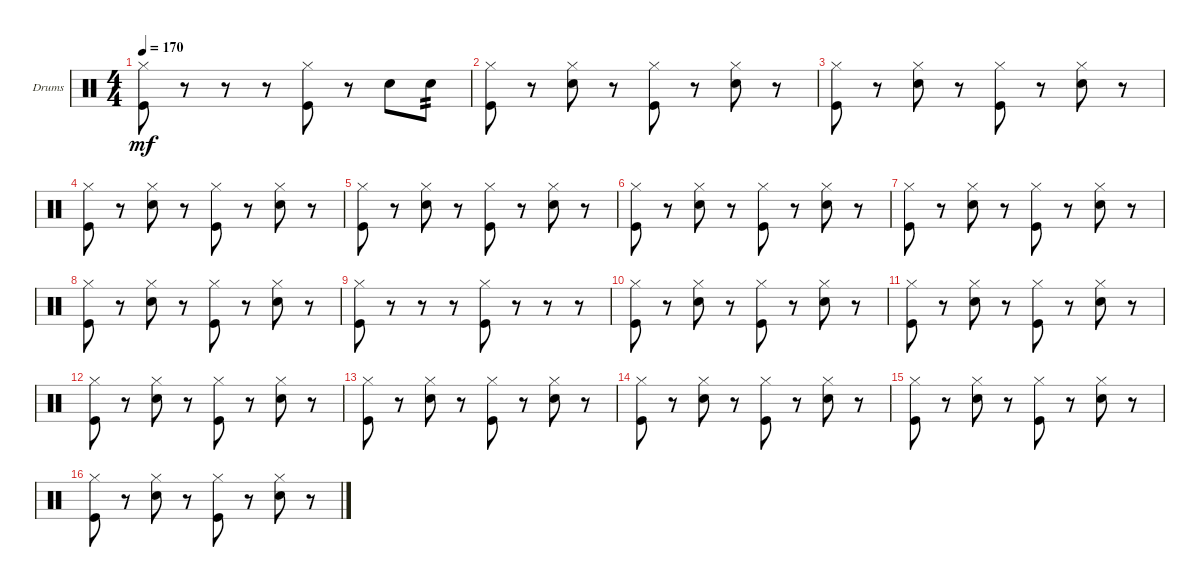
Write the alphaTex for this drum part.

\defaultSystemsLayout 4
\bracketExtendMode groupsimilarinstruments
\firstSystemTrackNameOrientation horizontal
\otherSystemsTrackNameOrientation horizontal
\track ("Drumkit" "Drums") {instrument percussion}
\staff {score}
\articulation defaults
\ts (4 4)
\tempo 170
\clef neutral
\ks c
("Kick (hit)" "Hi-Hat (closed)").8{dy mf} r.8 r.8 r.8 ("Kick (hit)" "Hi-Hat (closed)").8 r.8 "Snare (hit) 2".8 "Snare (hit) 2".8{tp 2} |
("Kick (hit)" "Hi-Hat (closed)").8 r.8 ("Snare (hit) 2" "Hi-Hat (closed)").8 r.8 ("Kick (hit)" "Hi-Hat (closed)").8 r.8 ("Snare (hit) 2" "Hi-Hat (closed)").8 r.8 |
("Kick (hit)" "Hi-Hat (closed)").8 r.8 ("Snare (hit) 2" "Hi-Hat (closed)").8 r.8 ("Kick (hit)" "Hi-Hat (closed)").8 r.8 ("Snare (hit) 2" "Hi-Hat (closed)").8 r.8 |
("Kick (hit)" "Hi-Hat (closed)").8 r.8 ("Snare (hit) 2" "Hi-Hat (closed)").8 r.8 ("Kick (hit)" "Hi-Hat (closed)").8 r.8 ("Snare (hit) 2" "Hi-Hat (closed)").8 r.8 |
("Kick (hit)" "Hi-Hat (closed)").8 r.8 ("Snare (hit) 2" "Hi-Hat (closed)").8 r.8 ("Kick (hit)" "Hi-Hat (closed)").8 r.8 ("Snare (hit) 2" "Hi-Hat (closed)").8 r.8 |
("Kick (hit)" "Hi-Hat (closed)").8 r.8 ("Snare (hit) 2" "Hi-Hat (closed)").8 r.8 ("Kick (hit)" "Hi-Hat (closed)").8 r.8 ("Snare (hit) 2" "Hi-Hat (closed)").8 r.8 |
("Kick (hit)" "Hi-Hat (closed)").8 r.8 ("Snare (hit) 2" "Hi-Hat (closed)").8 r.8 ("Kick (hit)" "Hi-Hat (closed)").8 r.8 ("Snare (hit) 2" "Hi-Hat (closed)").8 r.8 |
("Kick (hit)" "Hi-Hat (closed)").8 r.8 ("Snare (hit) 2" "Hi-Hat (closed)").8 r.8 ("Kick (hit)" "Hi-Hat (closed)").8 r.8 ("Snare (hit) 2" "Hi-Hat (closed)").8 r.8 |
("Kick (hit)" "Hi-Hat (closed)").8 r.8 r.8 r.8 ("Kick (hit)" "Hi-Hat (closed)").8 r.8 r.8 r.8 |
("Kick (hit)" "Hi-Hat (closed)").8 r.8 ("Snare (hit) 2" "Hi-Hat (closed)").8 r.8 ("Kick (hit)" "Hi-Hat (closed)").8 r.8 ("Snare (hit) 2" "Hi-Hat (closed)").8 r.8 |
("Kick (hit)" "Hi-Hat (closed)").8 r.8 ("Snare (hit) 2" "Hi-Hat (closed)").8 r.8 ("Kick (hit)" "Hi-Hat (closed)").8 r.8 ("Snare (hit) 2" "Hi-Hat (closed)").8 r.8 |
("Kick (hit)" "Hi-Hat (closed)").8 r.8 ("Snare (hit) 2" "Hi-Hat (closed)").8 r.8 ("Kick (hit)" "Hi-Hat (closed)").8 r.8 ("Snare (hit) 2" "Hi-Hat (closed)").8 r.8 |
("Kick (hit)" "Hi-Hat (closed)").8 r.8 ("Snare (hit) 2" "Hi-Hat (closed)").8 r.8 ("Kick (hit)" "Hi-Hat (closed)").8 r.8 ("Snare (hit) 2" "Hi-Hat (closed)").8 r.8 |
("Kick (hit)" "Hi-Hat (closed)").8 r.8 ("Snare (hit) 2" "Hi-Hat (closed)").8 r.8 ("Kick (hit)" "Hi-Hat (closed)").8 r.8 ("Snare (hit) 2" "Hi-Hat (closed)").8 r.8 |
("Kick (hit)" "Hi-Hat (closed)").8 r.8 ("Snare (hit) 2" "Hi-Hat (closed)").8 r.8 ("Kick (hit)" "Hi-Hat (closed)").8 r.8 ("Snare (hit) 2" "Hi-Hat (closed)").8 r.8 |
("Kick (hit)" "Hi-Hat (closed)").8 r.8 ("Snare (hit) 2" "Hi-Hat (closed)").8 r.8 ("Kick (hit)" "Hi-Hat (closed)").8 r.8 ("Snare (hit) 2" "Hi-Hat (closed)").8 r.8
